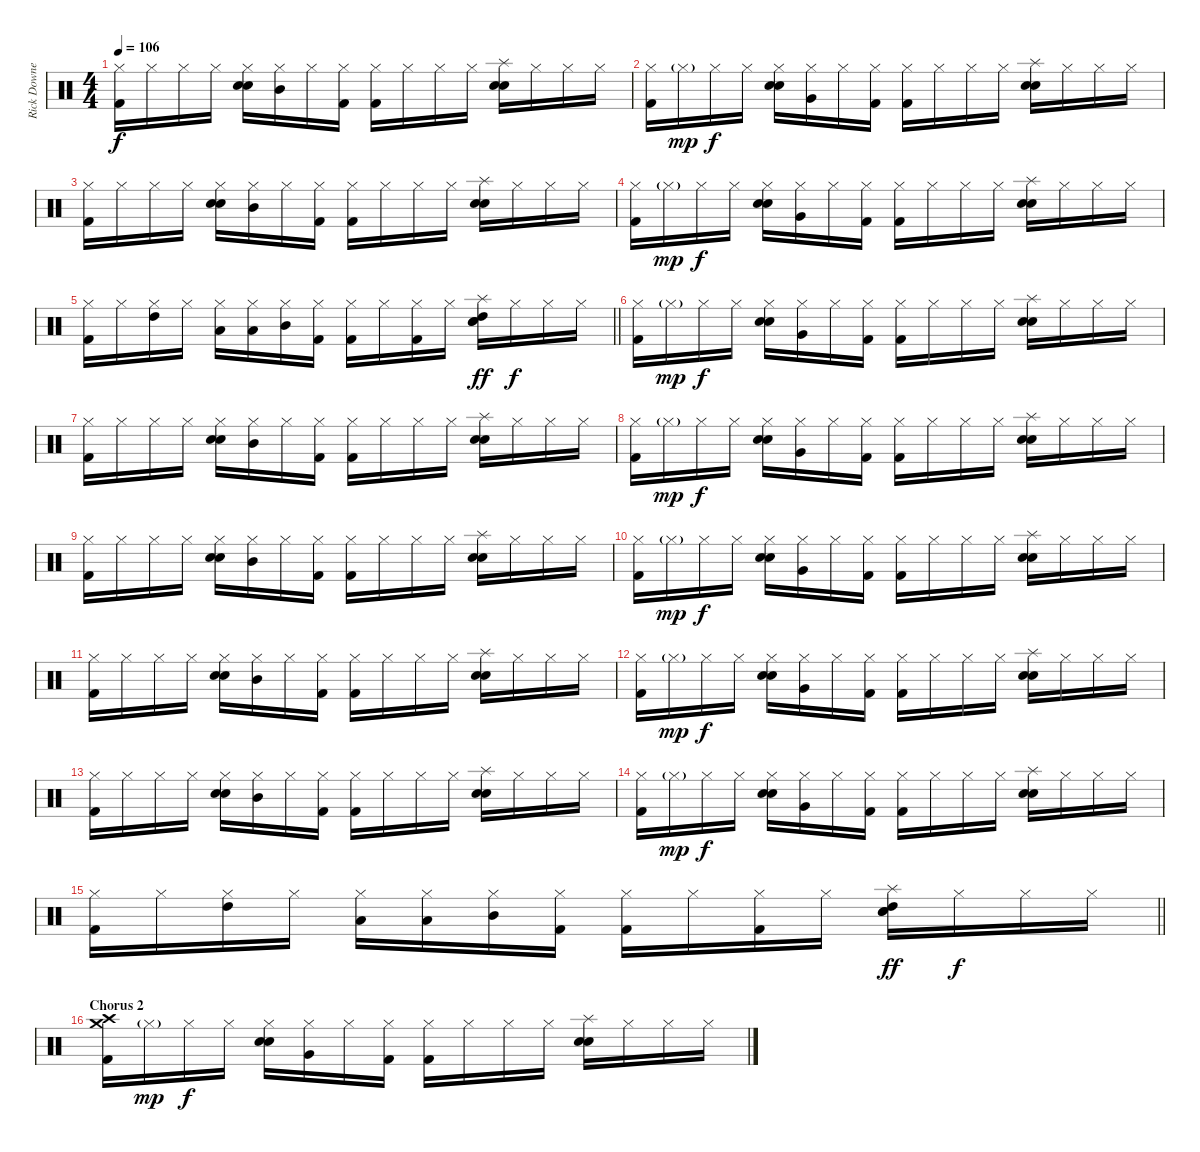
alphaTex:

\track ("Rick Downey" "Rick Downe") {instrument percussion}
\staff {score}
\articulation defaults
\ts (4 4)
\tempo 106
\clef neutral
\ks c
("Hi-Hat (closed)" "Kick (hit) 2").16{dy f} "Hi-Hat (closed)".16 "Hi-Hat (closed)".16 "Hi-Hat (closed)".16 ("Hi-Hat (closed)" "Electric Snare (hit)" "Snare (hit) 2").16 ("Mid Tom (hit)" "Hi-Hat (closed)").16 "Hi-Hat (closed)".16 ("Hi-Hat (closed)" "Kick (hit) 2").16 ("Hi-Hat (closed)" "Kick (hit) 2").16 "Hi-Hat (closed)".16 "Hi-Hat (closed)".16 "Hi-Hat (closed)".16 ("Splash (hit)" "Electric Snare (hit)" "Snare (hit) 2").16 "Hi-Hat (closed)".16 "Hi-Hat (closed)".16 "Hi-Hat (closed)".16 |
("Hi-Hat (closed)" "Kick (hit) 2").16 "Hi-Hat (closed)"{g}.16{dy mp} "Hi-Hat (closed)".16{dy f} "Hi-Hat (closed)".16 ("Hi-Hat (closed)" "Electric Snare (hit)" "Snare (hit) 2").16 ("Hi-Hat (closed)" "Very Low Tom (hit)").16 "Hi-Hat (closed)".16 ("Hi-Hat (closed)" "Kick (hit) 2").16 ("Hi-Hat (closed)" "Kick (hit) 2").16 "Hi-Hat (closed)".16 "Hi-Hat (closed)".16 "Hi-Hat (closed)".16 ("Splash (hit)" "Electric Snare (hit)" "Snare (hit) 2").16 "Hi-Hat (closed)".16 "Hi-Hat (closed)".16 "Hi-Hat (closed)".16 |
("Hi-Hat (closed)" "Kick (hit) 2").16 "Hi-Hat (closed)".16 "Hi-Hat (closed)".16 "Hi-Hat (closed)".16 ("Hi-Hat (closed)" "Electric Snare (hit)" "Snare (hit) 2").16 ("Mid Tom (hit)" "Hi-Hat (closed)").16 "Hi-Hat (closed)".16 ("Hi-Hat (closed)" "Kick (hit) 2").16 ("Hi-Hat (closed)" "Kick (hit) 2").16 "Hi-Hat (closed)".16 "Hi-Hat (closed)".16 "Hi-Hat (closed)".16 ("Splash (hit)" "Electric Snare (hit)" "Snare (hit) 2").16 "Hi-Hat (closed)".16 "Hi-Hat (closed)".16 "Hi-Hat (closed)".16 |
("Hi-Hat (closed)" "Kick (hit) 2").16 "Hi-Hat (closed)"{g}.16{dy mp} "Hi-Hat (closed)".16{dy f} "Hi-Hat (closed)".16 ("Hi-Hat (closed)" "Electric Snare (hit)" "Snare (hit) 2").16 ("Hi-Hat (closed)" "Very Low Tom (hit)").16 "Hi-Hat (closed)".16 ("Hi-Hat (closed)" "Kick (hit) 2").16 ("Hi-Hat (closed)" "Kick (hit) 2").16 "Hi-Hat (closed)".16 "Hi-Hat (closed)".16 "Hi-Hat (closed)".16 ("Splash (hit)" "Electric Snare (hit)" "Snare (hit) 2").16 "Hi-Hat (closed)".16 "Hi-Hat (closed)".16 "Hi-Hat (closed)".16 |
\barLineRight lightlight
("Hi-Hat (closed)" "Kick (hit) 2").16 "Hi-Hat (closed)".16 ("High Tom (hit)" "Hi-Hat (closed)").16 "Hi-Hat (closed)".16 ("Low Tom (hit)" "Hi-Hat (closed)").16 ("Low Tom (hit)" "Hi-Hat (closed)").16 ("Mid Tom (hit)" "Hi-Hat (closed)").16 ("Hi-Hat (closed)" "Kick (hit) 2").16 ("Hi-Hat (closed)" "Kick (hit) 2").16 "Hi-Hat (closed)".16 ("Hi-Hat (closed)" "Kick (hit) 2").16 "Hi-Hat (closed)".16 ("Splash (hit)" "High Tom (hit)" "Electric Snare (hit)" "Snare (hit) 2").16{dy ff} "Hi-Hat (closed)".16{dy f} "Hi-Hat (closed)".16 "Hi-Hat (closed)".16 |
("Hi-Hat (closed)" "Kick (hit) 2").16 "Hi-Hat (closed)"{g}.16{dy mp} "Hi-Hat (closed)".16{dy f} "Hi-Hat (closed)".16 ("Hi-Hat (closed)" "Electric Snare (hit)" "Snare (hit) 2").16 ("Hi-Hat (closed)" "Very Low Tom (hit)").16 "Hi-Hat (closed)".16 ("Hi-Hat (closed)" "Kick (hit) 2").16 ("Hi-Hat (closed)" "Kick (hit) 2").16 "Hi-Hat (closed)".16 "Hi-Hat (closed)".16 "Hi-Hat (closed)".16 ("Splash (hit)" "Electric Snare (hit)" "Snare (hit) 2").16 "Hi-Hat (closed)".16 "Hi-Hat (closed)".16 "Hi-Hat (closed)".16 |
("Hi-Hat (closed)" "Kick (hit) 2").16 "Hi-Hat (closed)".16 "Hi-Hat (closed)".16 "Hi-Hat (closed)".16 ("Hi-Hat (closed)" "Electric Snare (hit)" "Snare (hit) 2").16 ("Mid Tom (hit)" "Hi-Hat (closed)").16 "Hi-Hat (closed)".16 ("Hi-Hat (closed)" "Kick (hit) 2").16 ("Hi-Hat (closed)" "Kick (hit) 2").16 "Hi-Hat (closed)".16 "Hi-Hat (closed)".16 "Hi-Hat (closed)".16 ("Splash (hit)" "Electric Snare (hit)" "Snare (hit) 2").16 "Hi-Hat (closed)".16 "Hi-Hat (closed)".16 "Hi-Hat (closed)".16 |
("Hi-Hat (closed)" "Kick (hit) 2").16 "Hi-Hat (closed)"{g}.16{dy mp} "Hi-Hat (closed)".16{dy f} "Hi-Hat (closed)".16 ("Hi-Hat (closed)" "Electric Snare (hit)" "Snare (hit) 2").16 ("Hi-Hat (closed)" "Very Low Tom (hit)").16 "Hi-Hat (closed)".16 ("Hi-Hat (closed)" "Kick (hit) 2").16 ("Hi-Hat (closed)" "Kick (hit) 2").16 "Hi-Hat (closed)".16 "Hi-Hat (closed)".16 "Hi-Hat (closed)".16 ("Splash (hit)" "Electric Snare (hit)" "Snare (hit) 2").16 "Hi-Hat (closed)".16 "Hi-Hat (closed)".16 "Hi-Hat (closed)".16 |
("Hi-Hat (closed)" "Kick (hit) 2").16 "Hi-Hat (closed)".16 "Hi-Hat (closed)".16 "Hi-Hat (closed)".16 ("Hi-Hat (closed)" "Electric Snare (hit)" "Snare (hit) 2").16 ("Mid Tom (hit)" "Hi-Hat (closed)").16 "Hi-Hat (closed)".16 ("Hi-Hat (closed)" "Kick (hit) 2").16 ("Hi-Hat (closed)" "Kick (hit) 2").16 "Hi-Hat (closed)".16 "Hi-Hat (closed)".16 "Hi-Hat (closed)".16 ("Splash (hit)" "Electric Snare (hit)" "Snare (hit) 2").16 "Hi-Hat (closed)".16 "Hi-Hat (closed)".16 "Hi-Hat (closed)".16 |
("Hi-Hat (closed)" "Kick (hit) 2").16 "Hi-Hat (closed)"{g}.16{dy mp} "Hi-Hat (closed)".16{dy f} "Hi-Hat (closed)".16 ("Hi-Hat (closed)" "Electric Snare (hit)" "Snare (hit) 2").16 ("Hi-Hat (closed)" "Very Low Tom (hit)").16 "Hi-Hat (closed)".16 ("Hi-Hat (closed)" "Kick (hit) 2").16 ("Hi-Hat (closed)" "Kick (hit) 2").16 "Hi-Hat (closed)".16 "Hi-Hat (closed)".16 "Hi-Hat (closed)".16 ("Splash (hit)" "Electric Snare (hit)" "Snare (hit) 2").16 "Hi-Hat (closed)".16 "Hi-Hat (closed)".16 "Hi-Hat (closed)".16 |
("Hi-Hat (closed)" "Kick (hit) 2").16 "Hi-Hat (closed)".16 "Hi-Hat (closed)".16 "Hi-Hat (closed)".16 ("Hi-Hat (closed)" "Electric Snare (hit)" "Snare (hit) 2").16 ("Mid Tom (hit)" "Hi-Hat (closed)").16 "Hi-Hat (closed)".16 ("Hi-Hat (closed)" "Kick (hit) 2").16 ("Hi-Hat (closed)" "Kick (hit) 2").16 "Hi-Hat (closed)".16 "Hi-Hat (closed)".16 "Hi-Hat (closed)".16 ("Splash (hit)" "Electric Snare (hit)" "Snare (hit) 2").16 "Hi-Hat (closed)".16 "Hi-Hat (closed)".16 "Hi-Hat (closed)".16 |
("Hi-Hat (closed)" "Kick (hit) 2").16 "Hi-Hat (closed)"{g}.16{dy mp} "Hi-Hat (closed)".16{dy f} "Hi-Hat (closed)".16 ("Hi-Hat (closed)" "Electric Snare (hit)" "Snare (hit) 2").16 ("Hi-Hat (closed)" "Very Low Tom (hit)").16 "Hi-Hat (closed)".16 ("Hi-Hat (closed)" "Kick (hit) 2").16 ("Hi-Hat (closed)" "Kick (hit) 2").16 "Hi-Hat (closed)".16 "Hi-Hat (closed)".16 "Hi-Hat (closed)".16 ("Splash (hit)" "Electric Snare (hit)" "Snare (hit) 2").16 "Hi-Hat (closed)".16 "Hi-Hat (closed)".16 "Hi-Hat (closed)".16 |
("Hi-Hat (closed)" "Kick (hit) 2").16 "Hi-Hat (closed)".16 "Hi-Hat (closed)".16 "Hi-Hat (closed)".16 ("Hi-Hat (closed)" "Electric Snare (hit)" "Snare (hit) 2").16 ("Mid Tom (hit)" "Hi-Hat (closed)").16 "Hi-Hat (closed)".16 ("Hi-Hat (closed)" "Kick (hit) 2").16 ("Hi-Hat (closed)" "Kick (hit) 2").16 "Hi-Hat (closed)".16 "Hi-Hat (closed)".16 "Hi-Hat (closed)".16 ("Splash (hit)" "Electric Snare (hit)" "Snare (hit) 2").16 "Hi-Hat (closed)".16 "Hi-Hat (closed)".16 "Hi-Hat (closed)".16 |
("Hi-Hat (closed)" "Kick (hit) 2").16 "Hi-Hat (closed)"{g}.16{dy mp} "Hi-Hat (closed)".16{dy f} "Hi-Hat (closed)".16 ("Hi-Hat (closed)" "Electric Snare (hit)" "Snare (hit) 2").16 ("Hi-Hat (closed)" "Very Low Tom (hit)").16 "Hi-Hat (closed)".16 ("Hi-Hat (closed)" "Kick (hit) 2").16 ("Hi-Hat (closed)" "Kick (hit) 2").16 "Hi-Hat (closed)".16 "Hi-Hat (closed)".16 "Hi-Hat (closed)".16 ("Splash (hit)" "Electric Snare (hit)" "Snare (hit) 2").16 "Hi-Hat (closed)".16 "Hi-Hat (closed)".16 "Hi-Hat (closed)".16 |
\barLineRight lightlight
("Hi-Hat (closed)" "Kick (hit) 2").16 "Hi-Hat (closed)".16 ("High Tom (hit)" "Hi-Hat (closed)").16 "Hi-Hat (closed)".16 ("Low Tom (hit)" "Hi-Hat (closed)").16 ("Low Tom (hit)" "Hi-Hat (closed)").16 ("Mid Tom (hit)" "Hi-Hat (closed)").16 ("Hi-Hat (closed)" "Kick (hit) 2").16 ("Hi-Hat (closed)" "Kick (hit) 2").16 "Hi-Hat (closed)".16 ("Hi-Hat (closed)" "Kick (hit) 2").16 "Hi-Hat (closed)".16 ("Splash (hit)" "High Tom (hit)" "Electric Snare (hit)" "Snare (hit) 2").16{dy ff} "Hi-Hat (closed)".16{dy f} "Hi-Hat (closed)".16 "Hi-Hat (closed)".16 |
\section ("" "Chorus 2")
("Crash medium (hit)" "Crash high (hit)" "Kick (hit) 2").16 "Hi-Hat (closed)"{g}.16{dy mp} "Hi-Hat (closed)".16{dy f} "Hi-Hat (closed)".16 ("Hi-Hat (closed)" "Electric Snare (hit)" "Snare (hit) 2").16 ("Hi-Hat (closed)" "Very Low Tom (hit)").16 "Hi-Hat (closed)".16 ("Hi-Hat (closed)" "Kick (hit) 2").16 ("Hi-Hat (closed)" "Kick (hit) 2").16 "Hi-Hat (closed)".16 "Hi-Hat (closed)".16 "Hi-Hat (closed)".16 ("Splash (hit)" "Electric Snare (hit)" "Snare (hit) 2").16 "Hi-Hat (closed)".16 "Hi-Hat (closed)".16 "Hi-Hat (closed)".16
